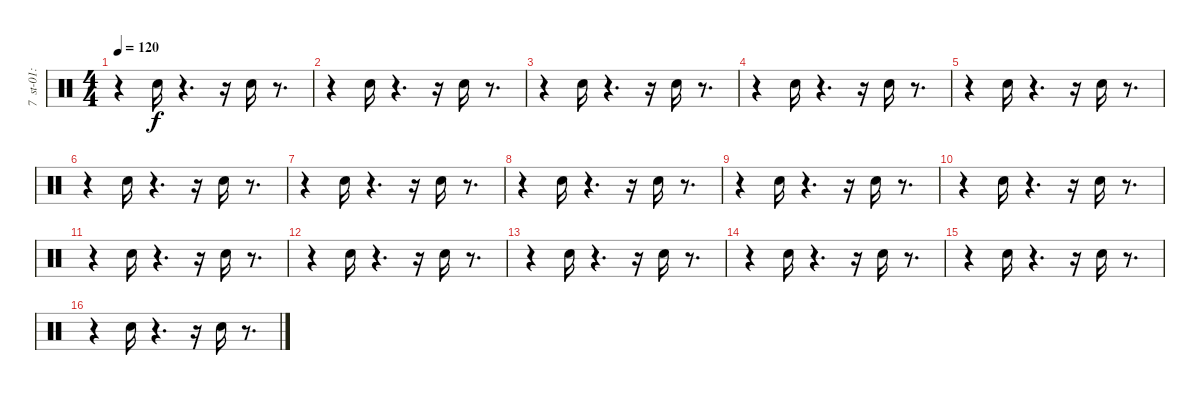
\track (" 7  st-01:claps1" " 7  st-01:") {instrument percussion}
\staff {score}
\articulation defaults
\ts (4 4)
\tempo 120
\clef neutral
\ks c
r.4{dy f} "Hand Clap (hit)".16 r.4{d} r.16 "Hand Clap (hit)".16 r.8{d} |
r.4 "Hand Clap (hit)".16 r.4{d} r.16 "Hand Clap (hit)".16 r.8{d} |
r.4 "Hand Clap (hit)".16 r.4{d} r.16 "Hand Clap (hit)".16 r.8{d} |
r.4 "Hand Clap (hit)".16 r.4{d} r.16 "Hand Clap (hit)".16 r.8{d} |
r.4 "Hand Clap (hit)".16 r.4{d} r.16 "Hand Clap (hit)".16 r.8{d} |
r.4 "Hand Clap (hit)".16 r.4{d} r.16 "Hand Clap (hit)".16 r.8{d} |
r.4 "Hand Clap (hit)".16 r.4{d} r.16 "Hand Clap (hit)".16 r.8{d} |
r.4 "Hand Clap (hit)".16 r.4{d} r.16 "Hand Clap (hit)".16 r.8{d} |
r.4 "Hand Clap (hit)".16 r.4{d} r.16 "Hand Clap (hit)".16 r.8{d} |
r.4 "Hand Clap (hit)".16 r.4{d} r.16 "Hand Clap (hit)".16 r.8{d} |
r.4 "Hand Clap (hit)".16 r.4{d} r.16 "Hand Clap (hit)".16 r.8{d} |
r.4 "Hand Clap (hit)".16 r.4{d} r.16 "Hand Clap (hit)".16 r.8{d} |
r.4 "Hand Clap (hit)".16 r.4{d} r.16 "Hand Clap (hit)".16 r.8{d} |
r.4 "Hand Clap (hit)".16 r.4{d} r.16 "Hand Clap (hit)".16 r.8{d} |
r.4 "Hand Clap (hit)".16 r.4{d} r.16 "Hand Clap (hit)".16 r.8{d} |
r.4 "Hand Clap (hit)".16 r.4{d} r.16 "Hand Clap (hit)".16 r.8{d}
